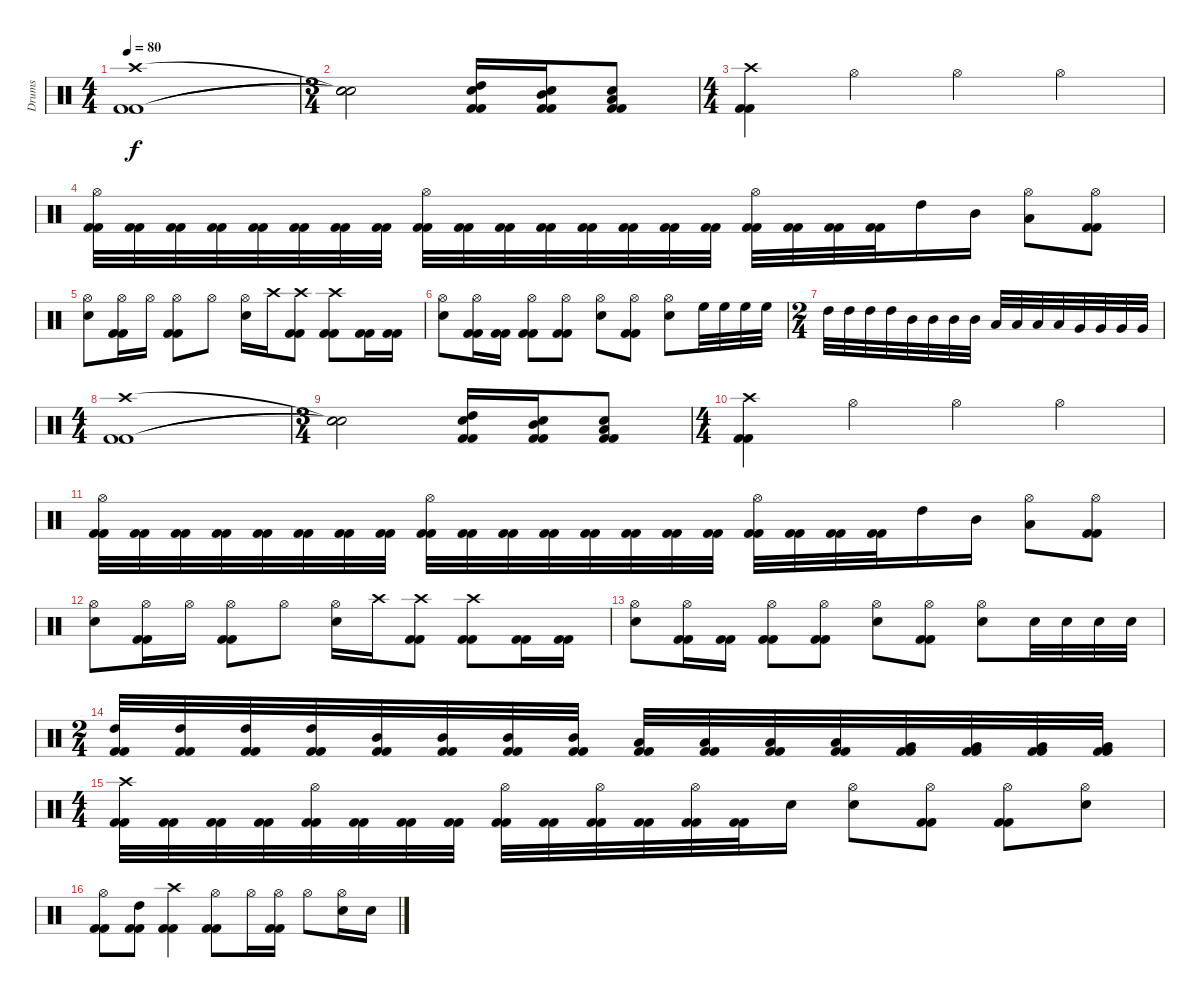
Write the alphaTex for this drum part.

\track ("Drums" "Drums") {instrument percussion}
\staff {score}
\articulation defaults
\ts (4 4)
\tempo 80
\clef neutral
\ks c
("Kick (hit) 2" "Kick (hit) 2" "Crash high (hit)").1{dy f} |
\ts (3 4)
("Snare (hit)"{t} "Snare (hit)"{t} "Snare (hit)"{t}).2 ("Kick (hit) 2" "Kick (hit) 2" "Snare (hit) 2" "High Tom (hit)").16 ("Kick (hit) 2" "Kick (hit) 2" "Snare (hit) 2" "Mid Tom (hit)").16 ("Kick (hit) 2" "Kick (hit) 2" "Snare (hit) 2" "Low Tom (hit)").8 |
\ts (4 4)
("Kick (hit) 2" "Kick (hit) 2" "Crash high (hit)").4 "Hi-Hat (open)".4 "Hi-Hat (open)".4 "Hi-Hat (open)".4 |
("Kick (hit) 2" "Kick (hit) 2" "Hi-Hat (open)").32 ("Kick (hit) 2" "Kick (hit) 2").32 ("Kick (hit) 2" "Kick (hit) 2").32 ("Kick (hit) 2" "Kick (hit) 2").32 ("Kick (hit) 2" "Kick (hit) 2").32 ("Kick (hit) 2" "Kick (hit) 2").32 ("Kick (hit) 2" "Kick (hit) 2").32 ("Kick (hit) 2" "Kick (hit) 2").32 ("Kick (hit) 2" "Kick (hit) 2" "Hi-Hat (open)").32 ("Kick (hit) 2" "Kick (hit) 2").32 ("Kick (hit) 2" "Kick (hit) 2").32 ("Kick (hit) 2" "Kick (hit) 2").32 ("Kick (hit) 2" "Kick (hit) 2").32 ("Kick (hit) 2" "Kick (hit) 2").32 ("Kick (hit) 2" "Kick (hit) 2").32 ("Kick (hit) 2" "Kick (hit) 2").32 ("Kick (hit) 2" "Kick (hit) 2" "Hi-Hat (open)").32 ("Kick (hit) 2" "Kick (hit) 2").32 ("Kick (hit) 2" "Kick (hit) 2").32 ("Kick (hit) 2" "Kick (hit) 2").32 "High Tom (hit)".16 "Mid Tom (hit)".16 ("Low Tom (hit)" "Hi-Hat (open)").8 ("Kick (hit) 2" "Kick (hit) 2" "Hi-Hat (open)").8 |
("Snare (hit) 2" "Hi-Hat (open)").8 ("Kick (hit) 2" "Kick (hit) 2" "Hi-Hat (open)").16 "Hi-Hat (open)".16 ("Kick (hit) 2" "Kick (hit) 2" "Hi-Hat (open)").8 "Hi-Hat (open)".8 ("Snare (hit) 2" "Hi-Hat (open)").16 "Crash high (hit)".16 ("Kick (hit) 2" "Kick (hit) 2" "Crash high (hit)").8 ("Kick (hit) 2" "Kick (hit) 2" "Crash high (hit)").8 ("Kick (hit) 2" "Kick (hit) 2").16 ("Kick (hit) 2" "Kick (hit) 2").16 |
("Snare (hit) 2" "Hi-Hat (open)").8 ("Kick (hit) 2" "Kick (hit) 2" "Hi-Hat (open)").16 ("Kick (hit) 2" "Kick (hit) 2").16 ("Kick (hit) 2" "Kick (hit) 2" "Hi-Hat (open)").8 ("Kick (hit) 2" "Kick (hit) 2" "Hi-Hat (open)").8 ("Snare (hit) 2" "Hi-Hat (open)").8 ("Kick (hit) 2" "Kick (hit) 2" "Hi-Hat (open)").8 ("Snare (hit) 2" "Hi-Hat (open)").8 "High Floor Tom (hit)".32 "High Floor Tom (hit)".32 "High Floor Tom (hit)".32 "High Floor Tom (hit)".32 |
\ts (2 4)
"High Tom (hit)".32 "High Tom (hit)".32 "High Tom (hit)".32 "High Tom (hit)".32 "Mid Tom (hit)".32 "Mid Tom (hit)".32 "Mid Tom (hit)".32 "Mid Tom (hit)".32 "Low Tom (hit)".32 "Low Tom (hit)".32 "Low Tom (hit)".32 "Low Tom (hit)".32 "Very Low Tom (hit)".32 "Very Low Tom (hit)".32 "Very Low Tom (hit)".32 "Very Low Tom (hit)".32 |
\ts (4 4)
("Kick (hit) 2" "Kick (hit) 2" "Crash high (hit)").1 |
\ts (3 4)
("Snare (hit)"{t} "Snare (hit)"{t} "Snare (hit)"{t}).2 ("Kick (hit) 2" "Kick (hit) 2" "Snare (hit) 2" "High Tom (hit)").16 ("Kick (hit) 2" "Kick (hit) 2" "Snare (hit) 2" "Mid Tom (hit)").16 ("Kick (hit) 2" "Kick (hit) 2" "Snare (hit) 2" "Low Tom (hit)").8 |
\ts (4 4)
("Kick (hit) 2" "Kick (hit) 2" "Crash high (hit)").4 "Hi-Hat (open)".4 "Hi-Hat (open)".4 "Hi-Hat (open)".4 |
("Kick (hit) 2" "Kick (hit) 2" "Hi-Hat (open)").32 ("Kick (hit) 2" "Kick (hit) 2").32 ("Kick (hit) 2" "Kick (hit) 2").32 ("Kick (hit) 2" "Kick (hit) 2").32 ("Kick (hit) 2" "Kick (hit) 2").32 ("Kick (hit) 2" "Kick (hit) 2").32 ("Kick (hit) 2" "Kick (hit) 2").32 ("Kick (hit) 2" "Kick (hit) 2").32 ("Kick (hit) 2" "Kick (hit) 2" "Hi-Hat (open)").32 ("Kick (hit) 2" "Kick (hit) 2").32 ("Kick (hit) 2" "Kick (hit) 2").32 ("Kick (hit) 2" "Kick (hit) 2").32 ("Kick (hit) 2" "Kick (hit) 2").32 ("Kick (hit) 2" "Kick (hit) 2").32 ("Kick (hit) 2" "Kick (hit) 2").32 ("Kick (hit) 2" "Kick (hit) 2").32 ("Kick (hit) 2" "Kick (hit) 2" "Hi-Hat (open)").32 ("Kick (hit) 2" "Kick (hit) 2").32 ("Kick (hit) 2" "Kick (hit) 2").32 ("Kick (hit) 2" "Kick (hit) 2").32 "High Tom (hit)".16 "Mid Tom (hit)".16 ("Low Tom (hit)" "Hi-Hat (open)").8 ("Kick (hit) 2" "Kick (hit) 2" "Hi-Hat (open)").8 |
("Snare (hit) 2" "Hi-Hat (open)").8 ("Kick (hit) 2" "Kick (hit) 2" "Hi-Hat (open)").16 "Hi-Hat (open)".16 ("Kick (hit) 2" "Kick (hit) 2" "Hi-Hat (open)").8 "Hi-Hat (open)".8 ("Snare (hit) 2" "Hi-Hat (open)").16 "Crash high (hit)".16 ("Kick (hit) 2" "Kick (hit) 2" "Crash high (hit)").8 ("Kick (hit) 2" "Kick (hit) 2" "Crash high (hit)").8 ("Kick (hit) 2" "Kick (hit) 2").16 ("Kick (hit) 2" "Kick (hit) 2").16 |
("Snare (hit) 2" "Hi-Hat (open)").8 ("Kick (hit) 2" "Kick (hit) 2" "Hi-Hat (open)").16 ("Kick (hit) 2" "Kick (hit) 2").16 ("Kick (hit) 2" "Kick (hit) 2" "Hi-Hat (open)").8 ("Kick (hit) 2" "Kick (hit) 2" "Hi-Hat (open)").8 ("Snare (hit) 2" "Hi-Hat (open)").8 ("Kick (hit) 2" "Kick (hit) 2" "Hi-Hat (open)").8 ("Snare (hit) 2" "Hi-Hat (open)").8 "Snare (hit) 2".32 "Snare (hit) 2".32 "Snare (hit) 2".32 "Snare (hit) 2".32 |
\ts (2 4)
("Kick (hit) 2" "Kick (hit) 2" "High Tom (hit)").32 ("Kick (hit) 2" "Kick (hit) 2" "High Tom (hit)").32 ("Kick (hit) 2" "Kick (hit) 2" "High Tom (hit)").32 ("Kick (hit) 2" "Kick (hit) 2" "High Tom (hit)").32 ("Kick (hit) 2" "Kick (hit) 2" "Mid Tom (hit)").32 ("Kick (hit) 2" "Kick (hit) 2" "Mid Tom (hit)").32 ("Kick (hit) 2" "Kick (hit) 2" "Mid Tom (hit)").32 ("Kick (hit) 2" "Kick (hit) 2" "Mid Tom (hit)").32 ("Kick (hit) 2" "Kick (hit) 2" "Low Tom (hit)").32 ("Kick (hit) 2" "Kick (hit) 2" "Low Tom (hit)").32 ("Kick (hit) 2" "Kick (hit) 2" "Low Tom (hit)").32 ("Kick (hit) 2" "Kick (hit) 2" "Low Tom (hit)").32 ("Kick (hit) 2" "Kick (hit) 2" "Very Low Tom (hit)").32 ("Kick (hit) 2" "Kick (hit) 2" "Very Low Tom (hit)").32 ("Kick (hit) 2" "Kick (hit) 2" "Very Low Tom (hit)").32 ("Kick (hit) 2" "Kick (hit) 2" "Very Low Tom (hit)").32 |
\ts (4 4)
("Kick (hit) 2" "Kick (hit) 2" "Crash high (hit)").32 ("Kick (hit) 2" "Kick (hit) 2").32 ("Kick (hit) 2" "Kick (hit) 2").32 ("Kick (hit) 2" "Kick (hit) 2").32 ("Kick (hit) 2" "Kick (hit) 2" "Hi-Hat (open)").32 ("Kick (hit) 2" "Kick (hit) 2").32 ("Kick (hit) 2" "Kick (hit) 2").32 ("Kick (hit) 2" "Kick (hit) 2").32 ("Kick (hit) 2" "Kick (hit) 2" "Hi-Hat (open)").32 ("Kick (hit) 2" "Kick (hit) 2").32 ("Kick (hit) 2" "Kick (hit) 2" "Hi-Hat (open)").32 ("Kick (hit) 2" "Kick (hit) 2").32 ("Kick (hit) 2" "Kick (hit) 2" "Hi-Hat (open)").32 ("Kick (hit) 2" "Kick (hit) 2").32 "Snare (hit) 2".16 ("Snare (hit) 2" "Hi-Hat (open)").8 ("Kick (hit) 2" "Kick (hit) 2" "Hi-Hat (open)").8 ("Kick (hit) 2" "Kick (hit) 2" "Hi-Hat (open)").8 ("Snare (hit) 2" "Hi-Hat (open)").8 |
("Kick (hit) 2" "Kick (hit) 2" "Hi-Hat (open)").8 ("Kick (hit) 2" "Kick (hit) 2" "High Tom (hit)").8 ("Kick (hit) 2" "Kick (hit) 2" "Crash high (hit)").4 ("Kick (hit) 2" "Kick (hit) 2" "Hi-Hat (open)").8 "Hi-Hat (open)".16 ("Kick (hit) 2" "Kick (hit) 2" "Hi-Hat (open)").16 "Hi-Hat (open)".8 ("Snare (hit) 2" "Hi-Hat (open)").16 "Snare (hit) 2".16
